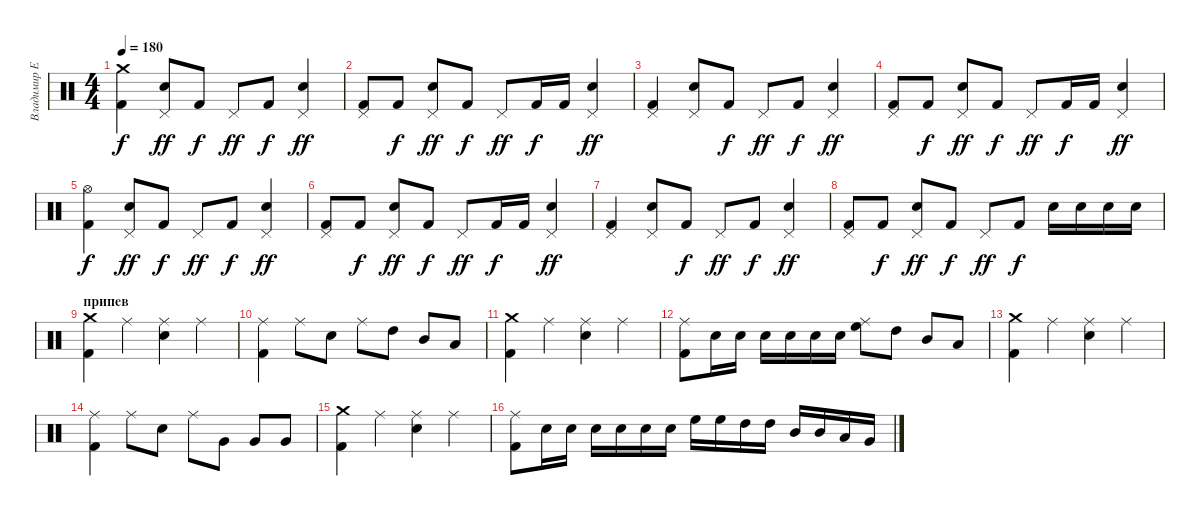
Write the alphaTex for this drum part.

\track ("Владимир Ермаков" "Владимир Е") {instrument percussion}
\staff {score}
\articulation defaults
\ts (4 4)
\tempo 180
\clef neutral
\ks c
("Crash medium (hit)" "Kick (hit) 2").4{dy f} ("Pedal Hi-Hat (hit)" "Electric Snare (hit)").8{dy ff} "Kick (hit) 2".8{dy f} "Pedal Hi-Hat (hit)".8{dy ff} "Kick (hit) 2".8{dy f} ("Pedal Hi-Hat (hit)" "Electric Snare (hit)").4{dy ff} |
("Pedal Hi-Hat (hit)" "Kick (hit) 2").8 "Kick (hit) 2".8{dy f} ("Pedal Hi-Hat (hit)" "Electric Snare (hit)").8{dy ff} "Kick (hit) 2".8{dy f} "Pedal Hi-Hat (hit)".8{dy ff} "Kick (hit) 2".16{dy f} "Kick (hit) 2".16 ("Pedal Hi-Hat (hit)" "Electric Snare (hit)").4{dy ff} |
("Pedal Hi-Hat (hit)" "Kick (hit) 2").4 ("Pedal Hi-Hat (hit)" "Electric Snare (hit)").8 "Kick (hit) 2".8{dy f} "Pedal Hi-Hat (hit)".8{dy ff} "Kick (hit) 2".8{dy f} ("Pedal Hi-Hat (hit)" "Electric Snare (hit)").4{dy ff} |
("Pedal Hi-Hat (hit)" "Kick (hit) 2").8 "Kick (hit) 2".8{dy f} ("Pedal Hi-Hat (hit)" "Electric Snare (hit)").8{dy ff} "Kick (hit) 2".8{dy f} "Pedal Hi-Hat (hit)".8{dy ff} "Kick (hit) 2".16{dy f} "Kick (hit) 2".16 ("Pedal Hi-Hat (hit)" "Electric Snare (hit)").4{dy ff} |
("Hi-Hat (open)" "Kick (hit) 2").4{dy f} ("Pedal Hi-Hat (hit)" "Electric Snare (hit)").8{dy ff} "Kick (hit) 2".8{dy f} "Pedal Hi-Hat (hit)".8{dy ff} "Kick (hit) 2".8{dy f} ("Pedal Hi-Hat (hit)" "Electric Snare (hit)").4{dy ff} |
("Pedal Hi-Hat (hit)" "Kick (hit) 2").8 "Kick (hit) 2".8{dy f} ("Pedal Hi-Hat (hit)" "Electric Snare (hit)").8{dy ff} "Kick (hit) 2".8{dy f} "Pedal Hi-Hat (hit)".8{dy ff} "Kick (hit) 2".16{dy f} "Kick (hit) 2".16 ("Pedal Hi-Hat (hit)" "Electric Snare (hit)").4{dy ff} |
("Pedal Hi-Hat (hit)" "Kick (hit) 2").4 ("Pedal Hi-Hat (hit)" "Electric Snare (hit)").8 "Kick (hit) 2".8{dy f} "Pedal Hi-Hat (hit)".8{dy ff} "Kick (hit) 2".8{dy f} ("Pedal Hi-Hat (hit)" "Electric Snare (hit)").4{dy ff} |
("Pedal Hi-Hat (hit)" "Kick (hit) 2").8 "Kick (hit) 2".8{dy f} ("Pedal Hi-Hat (hit)" "Electric Snare (hit)").8{dy ff} "Kick (hit) 2".8{dy f} "Pedal Hi-Hat (hit)".8{dy ff} "Kick (hit) 2".8{dy f} "Electric Snare (hit)".16 "Electric Snare (hit)".16 "Electric Snare (hit)".16 "Electric Snare (hit)".16 |
\section ("" "припев")
("Crash medium (hit)" "Kick (hit) 2").4 "Ride (middle)".4 ("Ride (middle)" "Electric Snare (hit)").4 "Ride (middle)".4 |
("Ride (middle)" "Kick (hit) 2").4 "Ride (middle)".8 "Electric Snare (hit)".8 "Ride (middle)".8 "High Tom (hit)".8 "Mid Tom (hit)".8 "Low Tom (hit)".8 |
("Crash medium (hit)" "Kick (hit) 2").4 "Ride (middle)".4 ("Ride (middle)" "Electric Snare (hit)").4 "Ride (middle)".4 |
("Ride (middle)" "Kick (hit) 2").8 "Electric Snare (hit)".16 "Electric Snare (hit)".16 "Electric Snare (hit)".16 "Electric Snare (hit)".16 "Electric Snare (hit)".16 "Electric Snare (hit)".16 ("Ride (middle)" "High Floor Tom (hit)").8 "High Tom (hit)".8 "Mid Tom (hit)".8 "Low Tom (hit)".8 |
("Crash medium (hit)" "Kick (hit) 2").4 "Ride (middle)".4 ("Ride (middle)" "Electric Snare (hit)").4 "Ride (middle)".4 |
("Ride (middle)" "Kick (hit) 2").4 "Ride (middle)".8 "Electric Snare (hit)".8 "Ride (middle)".8 "Very Low Tom (hit)".8 "Very Low Tom (hit)".8 "Very Low Tom (hit)".8 |
("Crash medium (hit)" "Kick (hit) 2").4 "Ride (middle)".4 ("Ride (middle)" "Electric Snare (hit)").4 "Ride (middle)".4 |
("Ride (middle)" "Kick (hit) 2").8 "Electric Snare (hit)".16 "Electric Snare (hit)".16 "Electric Snare (hit)".16 "Electric Snare (hit)".16 "Electric Snare (hit)".16 "Electric Snare (hit)".16 "High Floor Tom (hit)".16 "High Floor Tom (hit)".16 "High Tom (hit)".16 "High Tom (hit)".16 "Mid Tom (hit)".16 "Mid Tom (hit)".16 "Low Tom (hit)".16 "Very Low Tom (hit)".16
